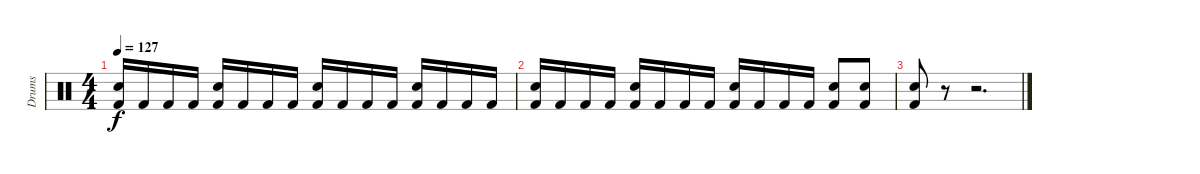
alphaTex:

\track ("Drums" "Drums") {instrument percussion}
\staff {score}
\articulation defaults
\ts (4 4)
\tempo 127
\clef neutral
\ks c
("Kick (hit) 2" "Electric Snare (hit)").16{dy f} "Kick (hit) 2".16 "Kick (hit) 2".16 "Kick (hit) 2".16 ("Kick (hit) 2" "Electric Snare (hit)").16 "Kick (hit) 2".16 "Kick (hit) 2".16 "Kick (hit) 2".16 ("Kick (hit) 2" "Electric Snare (hit)").16 "Kick (hit) 2".16 "Kick (hit) 2".16 "Kick (hit) 2".16 ("Kick (hit) 2" "Electric Snare (hit)").16 "Kick (hit) 2".16 "Kick (hit) 2".16 "Kick (hit) 2".16 |
("Kick (hit) 2" "Electric Snare (hit)").16 "Kick (hit) 2".16 "Kick (hit) 2".16 "Kick (hit) 2".16 ("Kick (hit) 2" "Electric Snare (hit)").16 "Kick (hit) 2".16 "Kick (hit) 2".16 "Kick (hit) 2".16 ("Kick (hit) 2" "Electric Snare (hit)").16 "Kick (hit) 2".16 "Kick (hit) 2".16 "Kick (hit) 2".16 ("Kick (hit) 2" "Electric Snare (hit)").8 ("Kick (hit) 2" "Electric Snare (hit)").8 |
("Kick (hit) 2" "Electric Snare (hit)").8 r.8 r.2{d}
